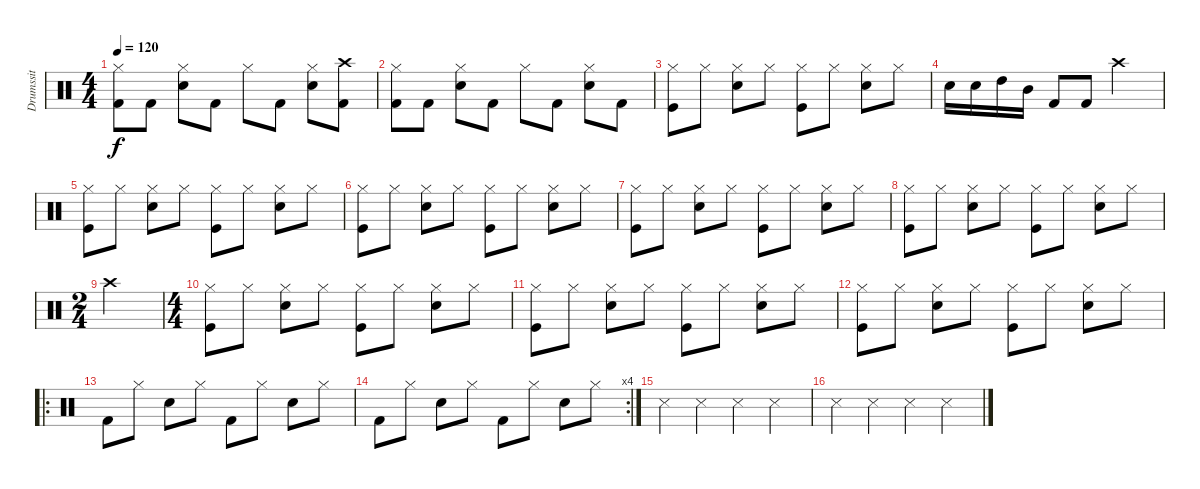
\track ("Drumssit" "Drumssit") {instrument percussion}
\staff {score}
\articulation defaults
\ts (4 4)
\tempo 120
\clef neutral
\ks c
("Kick (hit) 2" "Hi-Hat (closed)").8{dy f} "Kick (hit) 2".8 ("Hi-Hat (closed)" "Snare (hit) 2").8 "Kick (hit) 2".8 "Hi-Hat (closed)".8 "Kick (hit) 2".8 ("Hi-Hat (closed)" "Snare (hit) 2").8 ("Kick (hit) 2" "Crash high (hit)").8 |
("Kick (hit) 2" "Hi-Hat (closed)").8 "Kick (hit) 2".8 ("Hi-Hat (closed)" "Snare (hit) 2").8 "Kick (hit) 2".8 "Hi-Hat (closed)".8 "Kick (hit) 2".8 ("Hi-Hat (closed)" "Snare (hit) 2").8 "Kick (hit) 2".8 |
("Hi-Hat (closed)" "Kick (hit)").8 "Hi-Hat (closed)".8 ("Hi-Hat (closed)" "Snare (hit) 2").8 "Hi-Hat (closed)".8 ("Hi-Hat (closed)" "Kick (hit)").8 "Hi-Hat (closed)".8 ("Hi-Hat (closed)" "Snare (hit) 2").8 "Hi-Hat (closed)".8 |
"Electric Snare (hit)".16 "Electric Snare (hit)".16 "High Tom (hit)".16 "Mid Tom (hit)".16 "Kick (hit) 2".8 "Kick (hit) 2".8 "Crash high (hit)".2 |
("Hi-Hat (closed)" "Kick (hit)").8 "Hi-Hat (closed)".8 ("Hi-Hat (closed)" "Snare (hit) 2").8 "Hi-Hat (closed)".8 ("Hi-Hat (closed)" "Kick (hit)").8 "Hi-Hat (closed)".8 ("Hi-Hat (closed)" "Snare (hit) 2").8 "Hi-Hat (closed)".8 |
("Hi-Hat (closed)" "Kick (hit)").8 "Hi-Hat (closed)".8 ("Hi-Hat (closed)" "Snare (hit) 2").8 "Hi-Hat (closed)".8 ("Hi-Hat (closed)" "Kick (hit)").8 "Hi-Hat (closed)".8 ("Hi-Hat (closed)" "Snare (hit) 2").8 "Hi-Hat (closed)".8 |
("Hi-Hat (closed)" "Kick (hit)").8 "Hi-Hat (closed)".8 ("Hi-Hat (closed)" "Snare (hit) 2").8 "Hi-Hat (closed)".8 ("Hi-Hat (closed)" "Kick (hit)").8 "Hi-Hat (closed)".8 ("Hi-Hat (closed)" "Snare (hit) 2").8 "Hi-Hat (closed)".8 |
("Hi-Hat (closed)" "Kick (hit)").8 "Hi-Hat (closed)".8 ("Hi-Hat (closed)" "Snare (hit) 2").8 "Hi-Hat (closed)".8 ("Hi-Hat (closed)" "Kick (hit)").8 "Hi-Hat (closed)".8 ("Hi-Hat (closed)" "Snare (hit) 2").8 "Hi-Hat (closed)".8 |
\ts (2 4)
"Crash high (hit)".2 |
\ts (4 4)
("Hi-Hat (closed)" "Kick (hit)").8 "Hi-Hat (closed)".8 ("Hi-Hat (closed)" "Snare (hit) 2").8 "Hi-Hat (closed)".8 ("Hi-Hat (closed)" "Kick (hit)").8 "Hi-Hat (closed)".8 ("Hi-Hat (closed)" "Snare (hit) 2").8 "Hi-Hat (closed)".8 |
("Hi-Hat (closed)" "Kick (hit)").8 "Hi-Hat (closed)".8 ("Hi-Hat (closed)" "Snare (hit) 2").8 "Hi-Hat (closed)".8 ("Hi-Hat (closed)" "Kick (hit)").8 "Hi-Hat (closed)".8 ("Hi-Hat (closed)" "Snare (hit) 2").8 "Hi-Hat (closed)".8 |
("Hi-Hat (closed)" "Kick (hit)").8 "Hi-Hat (closed)".8 ("Hi-Hat (closed)" "Snare (hit) 2").8 "Hi-Hat (closed)".8 ("Hi-Hat (closed)" "Kick (hit)").8 "Hi-Hat (closed)".8 ("Hi-Hat (closed)" "Snare (hit) 2").8 "Hi-Hat (closed)".8 |
\ro "Kick (hit) 2".8 "Hi-Hat (closed)".8 "Snare (hit) 2".8 "Hi-Hat (closed)".8 "Kick (hit) 2".8 "Hi-Hat (closed)".8 "Snare (hit) 2".8 "Hi-Hat (closed)".8
|
\rc 4 "Kick (hit) 2".8 "Hi-Hat (closed)".8 "Snare (hit) 2".8 "Hi-Hat (closed)".8 "Kick (hit) 2".8 "Hi-Hat (closed)".8 "Snare (hit) 2".8 "Hi-Hat (closed)".8
|
"Snare (side stick) 3".4 "Snare (side stick) 3".4 "Snare (side stick) 3".4 "Snare (side stick) 3".4 |
"Snare (side stick) 3".4 "Snare (side stick) 3".4 "Snare (side stick) 3".4 "Snare (side stick) 3".4
